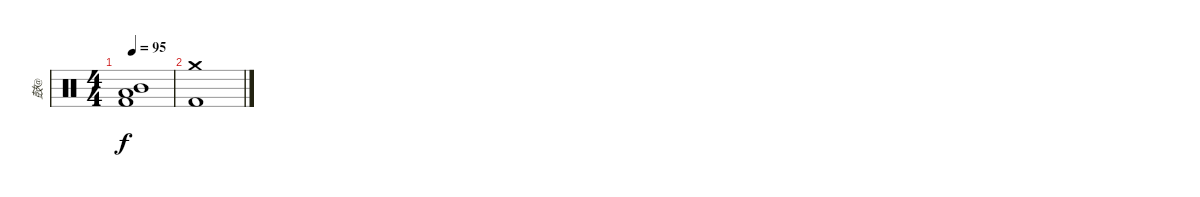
\track ("鼓@" "鼓@") {instrument percussion}
\staff {score}
\articulation defaults
\ts (4 4)
\tempo 95
\clef neutral
\ks c
("Low Tom (hit)" "Mid Tom (hit)" "Kick (hit) 2").1{dy f} |
("Crash medium (hit)" "Kick (hit) 2").1
